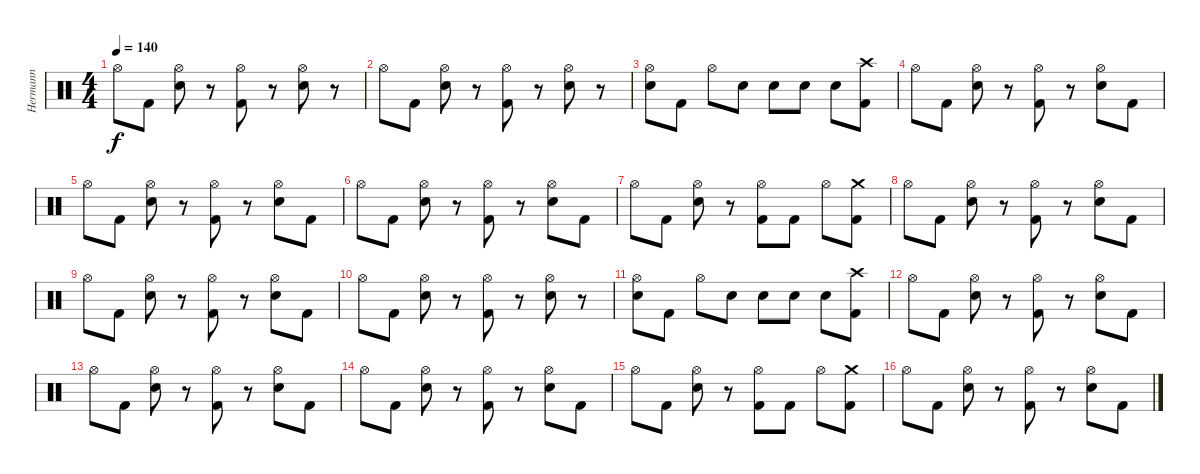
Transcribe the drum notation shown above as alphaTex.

\track ("Hermann" "Hermann") {instrument percussion}
\staff {score}
\articulation defaults
\ts (4 4)
\tempo 140
\clef neutral
\ks c "Hi-Hat (open)".8{dy f} "Kick (hit) 2".8
("Hi-Hat (open)" "Electric Snare (hit)").8 r.8 ("Hi-Hat (open)" "Kick (hit) 2").8 r.8 ("Hi-Hat (open)" "Electric Snare (hit)").8 r.8 |
"Hi-Hat (open)".8 "Kick (hit) 2".8 ("Hi-Hat (open)" "Electric Snare (hit)").8 r.8 ("Hi-Hat (open)" "Kick (hit) 2").8 r.8 ("Hi-Hat (open)" "Electric Snare (hit)").8 r.8 |
("Hi-Hat (open)" "Electric Snare (hit)").8 "Kick (hit) 2".8 "Hi-Hat (open)".8 "Electric Snare (hit)".8 "Electric Snare (hit)".8 "Electric Snare (hit)".8 "Electric Snare (hit)".8 ("Crash high (hit)" "Kick (hit) 2").8 |
"Hi-Hat (open)".8 "Kick (hit) 2".8 ("Hi-Hat (open)" "Electric Snare (hit)").8 r.8 ("Hi-Hat (open)" "Kick (hit) 2").8 r.8 ("Hi-Hat (open)" "Electric Snare (hit)").8 "Kick (hit) 2".8 |
"Hi-Hat (open)".8 "Kick (hit) 2".8 ("Hi-Hat (open)" "Electric Snare (hit)").8 r.8 ("Hi-Hat (open)" "Kick (hit) 2").8 r.8 ("Hi-Hat (open)" "Electric Snare (hit)").8 "Kick (hit) 2".8 |
"Hi-Hat (open)".8 "Kick (hit) 2".8 ("Hi-Hat (open)" "Electric Snare (hit)").8 r.8 ("Hi-Hat (open)" "Kick (hit) 2").8 r.8 ("Hi-Hat (open)" "Electric Snare (hit)").8 "Kick (hit) 2".8 |
"Hi-Hat (open)".8 "Kick (hit) 2".8 ("Hi-Hat (open)" "Electric Snare (hit)").8 r.8 ("Hi-Hat (open)" "Kick (hit) 2").8 "Kick (hit) 2".8 "Hi-Hat (open)".8 ("Crash medium (hit)" "Kick (hit) 2").8 |
"Hi-Hat (open)".8 "Kick (hit) 2".8 ("Hi-Hat (open)" "Electric Snare (hit)").8 r.8 ("Hi-Hat (open)" "Kick (hit) 2").8 r.8 ("Hi-Hat (open)" "Electric Snare (hit)").8 "Kick (hit) 2".8 |
"Hi-Hat (open)".8 "Kick (hit) 2".8 ("Hi-Hat (open)" "Electric Snare (hit)").8 r.8 ("Hi-Hat (open)" "Kick (hit) 2").8 r.8 ("Hi-Hat (open)" "Electric Snare (hit)").8 "Kick (hit) 2".8 |
"Hi-Hat (open)".8 "Kick (hit) 2".8 ("Hi-Hat (open)" "Electric Snare (hit)").8 r.8 ("Hi-Hat (open)" "Kick (hit) 2").8 r.8 ("Hi-Hat (open)" "Electric Snare (hit)").8 r.8 |
("Hi-Hat (open)" "Electric Snare (hit)").8 "Kick (hit) 2".8 "Hi-Hat (open)".8 "Electric Snare (hit)".8 "Electric Snare (hit)".8 "Electric Snare (hit)".8 "Electric Snare (hit)".8 ("Crash high (hit)" "Kick (hit) 2").8 |
"Hi-Hat (open)".8 "Kick (hit) 2".8 ("Hi-Hat (open)" "Electric Snare (hit)").8 r.8 ("Hi-Hat (open)" "Kick (hit) 2").8 r.8 ("Hi-Hat (open)" "Electric Snare (hit)").8 "Kick (hit) 2".8 |
"Hi-Hat (open)".8 "Kick (hit) 2".8 ("Hi-Hat (open)" "Electric Snare (hit)").8 r.8 ("Hi-Hat (open)" "Kick (hit) 2").8 r.8 ("Hi-Hat (open)" "Electric Snare (hit)").8 "Kick (hit) 2".8 |
"Hi-Hat (open)".8 "Kick (hit) 2".8 ("Hi-Hat (open)" "Electric Snare (hit)").8 r.8 ("Hi-Hat (open)" "Kick (hit) 2").8 r.8 ("Hi-Hat (open)" "Electric Snare (hit)").8 "Kick (hit) 2".8 |
"Hi-Hat (open)".8 "Kick (hit) 2".8 ("Hi-Hat (open)" "Electric Snare (hit)").8 r.8 ("Hi-Hat (open)" "Kick (hit) 2").8 "Kick (hit) 2".8 "Hi-Hat (open)".8 ("Crash medium (hit)" "Kick (hit) 2").8 |
"Hi-Hat (open)".8 "Kick (hit) 2".8 ("Hi-Hat (open)" "Electric Snare (hit)").8 r.8 ("Hi-Hat (open)" "Kick (hit) 2").8 r.8 ("Hi-Hat (open)" "Electric Snare (hit)").8 "Kick (hit) 2".8
